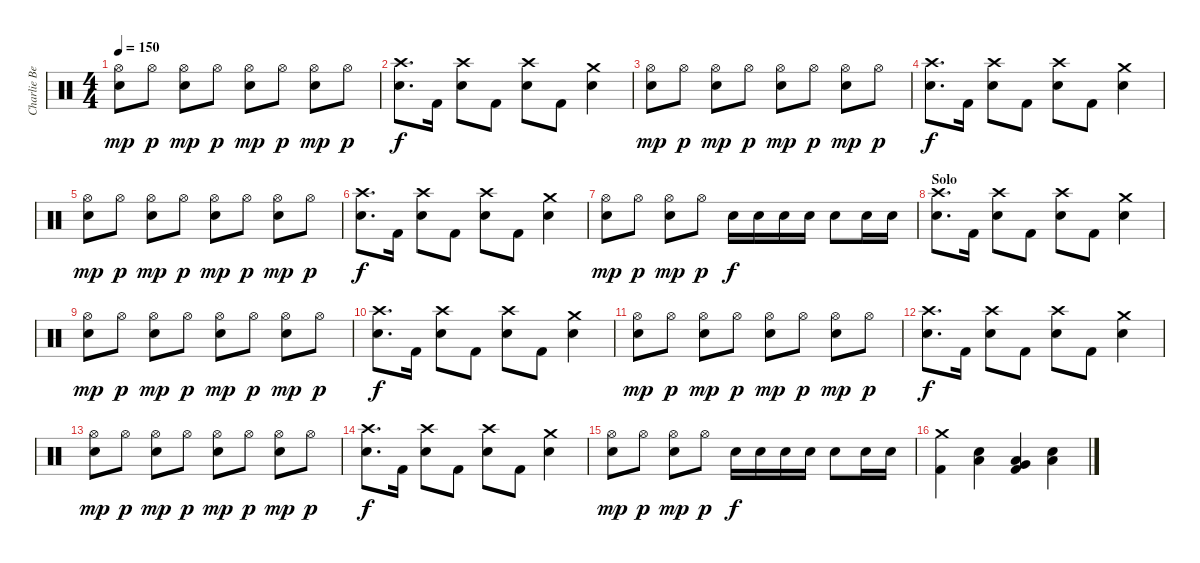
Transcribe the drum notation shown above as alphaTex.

\track ("Charlie Benante" "Charlie Be") {instrument percussion}
\staff {score}
\articulation defaults
\ts (4 4)
\tempo 150
\clef neutral
\ks c
("Hi-Hat (open)" "Snare (hit) 2").8{dy mp} "Hi-Hat (open)".8{dy p} ("Hi-Hat (open)" "Snare (hit) 2").8{dy mp} "Hi-Hat (open)".8{dy p} ("Hi-Hat (open)" "Snare (hit) 2").8{dy mp} "Hi-Hat (open)".8{dy p} ("Hi-Hat (open)" "Snare (hit) 2").8{dy mp} "Hi-Hat (open)".8{dy p} |
("Crash high (hit)" "Snare (hit) 2").8{d dy f} "Kick (hit) 2".16 ("Crash high (hit)" "Snare (hit) 2").8 "Kick (hit) 2".8 ("Crash high (hit)" "Snare (hit) 2").8 "Kick (hit) 2".8 ("Crash medium (hit)" "Snare (hit) 2").4 |
("Hi-Hat (open)" "Snare (hit) 2").8{dy mp} "Hi-Hat (open)".8{dy p} ("Hi-Hat (open)" "Snare (hit) 2").8{dy mp} "Hi-Hat (open)".8{dy p} ("Hi-Hat (open)" "Snare (hit) 2").8{dy mp} "Hi-Hat (open)".8{dy p} ("Hi-Hat (open)" "Snare (hit) 2").8{dy mp} "Hi-Hat (open)".8{dy p} |
("Crash high (hit)" "Snare (hit) 2").8{d dy f} "Kick (hit) 2".16 ("Crash high (hit)" "Snare (hit) 2").8 "Kick (hit) 2".8 ("Crash high (hit)" "Snare (hit) 2").8 "Kick (hit) 2".8 ("Crash medium (hit)" "Snare (hit) 2").4 |
("Hi-Hat (open)" "Snare (hit) 2").8{dy mp} "Hi-Hat (open)".8{dy p} ("Hi-Hat (open)" "Snare (hit) 2").8{dy mp} "Hi-Hat (open)".8{dy p} ("Hi-Hat (open)" "Snare (hit) 2").8{dy mp} "Hi-Hat (open)".8{dy p} ("Hi-Hat (open)" "Snare (hit) 2").8{dy mp} "Hi-Hat (open)".8{dy p} |
("Crash high (hit)" "Snare (hit) 2").8{d dy f} "Kick (hit) 2".16 ("Crash high (hit)" "Snare (hit) 2").8 "Kick (hit) 2".8 ("Crash high (hit)" "Snare (hit) 2").8 "Kick (hit) 2".8 ("Crash medium (hit)" "Snare (hit) 2").4 |
("Hi-Hat (open)" "Snare (hit) 2").8{dy mp} "Hi-Hat (open)".8{dy p} ("Hi-Hat (open)" "Snare (hit) 2").8{dy mp} "Hi-Hat (open)".8{dy p} "Snare (hit) 2".16{dy f} "Snare (hit) 2".16 "Snare (hit) 2".16 "Snare (hit) 2".16 "Snare (hit) 2".8 "Snare (hit) 2".16 "Snare (hit) 2".16 |
\section ("" "Solo")
("Crash high (hit)" "Snare (hit) 2").8{d} "Kick (hit) 2".16 ("Crash high (hit)" "Snare (hit) 2").8 "Kick (hit) 2".8 ("Crash high (hit)" "Snare (hit) 2").8 "Kick (hit) 2".8 ("Crash medium (hit)" "Snare (hit) 2").4 |
("Hi-Hat (open)" "Snare (hit) 2").8{dy mp} "Hi-Hat (open)".8{dy p} ("Hi-Hat (open)" "Snare (hit) 2").8{dy mp} "Hi-Hat (open)".8{dy p} ("Hi-Hat (open)" "Snare (hit) 2").8{dy mp} "Hi-Hat (open)".8{dy p} ("Hi-Hat (open)" "Snare (hit) 2").8{dy mp} "Hi-Hat (open)".8{dy p} |
("Crash high (hit)" "Snare (hit) 2").8{d dy f} "Kick (hit) 2".16 ("Crash high (hit)" "Snare (hit) 2").8 "Kick (hit) 2".8 ("Crash high (hit)" "Snare (hit) 2").8 "Kick (hit) 2".8 ("Crash medium (hit)" "Snare (hit) 2").4 |
("Hi-Hat (open)" "Snare (hit) 2").8{dy mp} "Hi-Hat (open)".8{dy p} ("Hi-Hat (open)" "Snare (hit) 2").8{dy mp} "Hi-Hat (open)".8{dy p} ("Hi-Hat (open)" "Snare (hit) 2").8{dy mp} "Hi-Hat (open)".8{dy p} ("Hi-Hat (open)" "Snare (hit) 2").8{dy mp} "Hi-Hat (open)".8{dy p} |
("Crash high (hit)" "Snare (hit) 2").8{d dy f} "Kick (hit) 2".16 ("Crash high (hit)" "Snare (hit) 2").8 "Kick (hit) 2".8 ("Crash high (hit)" "Snare (hit) 2").8 "Kick (hit) 2".8 ("Crash medium (hit)" "Snare (hit) 2").4 |
("Hi-Hat (open)" "Snare (hit) 2").8{dy mp} "Hi-Hat (open)".8{dy p} ("Hi-Hat (open)" "Snare (hit) 2").8{dy mp} "Hi-Hat (open)".8{dy p} ("Hi-Hat (open)" "Snare (hit) 2").8{dy mp} "Hi-Hat (open)".8{dy p} ("Hi-Hat (open)" "Snare (hit) 2").8{dy mp} "Hi-Hat (open)".8{dy p} |
("Crash high (hit)" "Snare (hit) 2").8{d dy f} "Kick (hit) 2".16 ("Crash high (hit)" "Snare (hit) 2").8 "Kick (hit) 2".8 ("Crash high (hit)" "Snare (hit) 2").8 "Kick (hit) 2".8 ("Crash medium (hit)" "Snare (hit) 2").4 |
("Hi-Hat (open)" "Snare (hit) 2").8{dy mp} "Hi-Hat (open)".8{dy p} ("Hi-Hat (open)" "Snare (hit) 2").8{dy mp} "Hi-Hat (open)".8{dy p} "Snare (hit) 2".16{dy f} "Snare (hit) 2".16 "Snare (hit) 2".16 "Snare (hit) 2".16 "Snare (hit) 2".8 "Snare (hit) 2".16 "Snare (hit) 2".16 |
("Kick (hit) 2" "Crash medium (hit)").4 ("Snare (hit) 2" "Low Tom (hit)").4 ("Kick (hit) 2" "Low Tom (hit)" "Very Low Tom (hit)").4 ("Snare (hit) 2" "Low Tom (hit)").4
